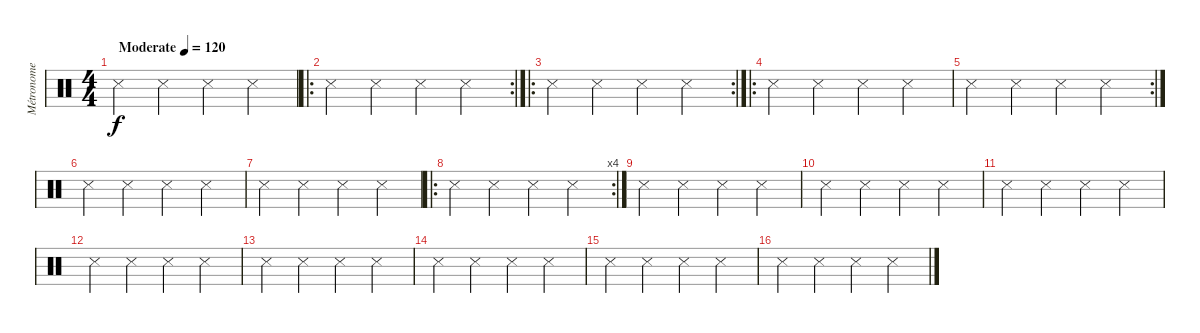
\track ("Métronome" "Métronome") {instrument percussion}
\staff {score}
\articulation defaults
\ts (4 4)
\tempo (120 "Moderate")
\clef neutral
\ks c "Metronome (hit)".4{dy f} "Metronome (hit)".4 "Metronome (hit)".4 "Metronome (hit)".4
|
\ro
\rc 2 "Metronome (hit)".4 "Metronome (hit)".4 "Metronome (hit)".4 "Metronome (hit)".4
|
\ro
\rc 2 "Metronome (hit)".4 "Metronome (hit)".4 "Metronome (hit)".4 "Metronome (hit)".4
|
\ro "Metronome (hit)".4 "Metronome (hit)".4 "Metronome (hit)".4 "Metronome (hit)".4
|
\rc 2 "Metronome (hit)".4 "Metronome (hit)".4 "Metronome (hit)".4 "Metronome (hit)".4
|
"Metronome (hit)".4 "Metronome (hit)".4 "Metronome (hit)".4 "Metronome (hit)".4 |
"Metronome (hit)".4 "Metronome (hit)".4 "Metronome (hit)".4 "Metronome (hit)".4 |
\ro
\rc 4 "Metronome (hit)".4 "Metronome (hit)".4 "Metronome (hit)".4 "Metronome (hit)".4
|
"Metronome (hit)".4 "Metronome (hit)".4 "Metronome (hit)".4 "Metronome (hit)".4 |
"Metronome (hit)".4 "Metronome (hit)".4 "Metronome (hit)".4 "Metronome (hit)".4 |
"Metronome (hit)".4 "Metronome (hit)".4 "Metronome (hit)".4 "Metronome (hit)".4 |
"Metronome (hit)".4 "Metronome (hit)".4 "Metronome (hit)".4 "Metronome (hit)".4 |
"Metronome (hit)".4 "Metronome (hit)".4 "Metronome (hit)".4 "Metronome (hit)".4 |
"Metronome (hit)".4 "Metronome (hit)".4 "Metronome (hit)".4 "Metronome (hit)".4 |
"Metronome (hit)".4 "Metronome (hit)".4 "Metronome (hit)".4 "Metronome (hit)".4 |
"Metronome (hit)".4 "Metronome (hit)".4 "Metronome (hit)".4 "Metronome (hit)".4
